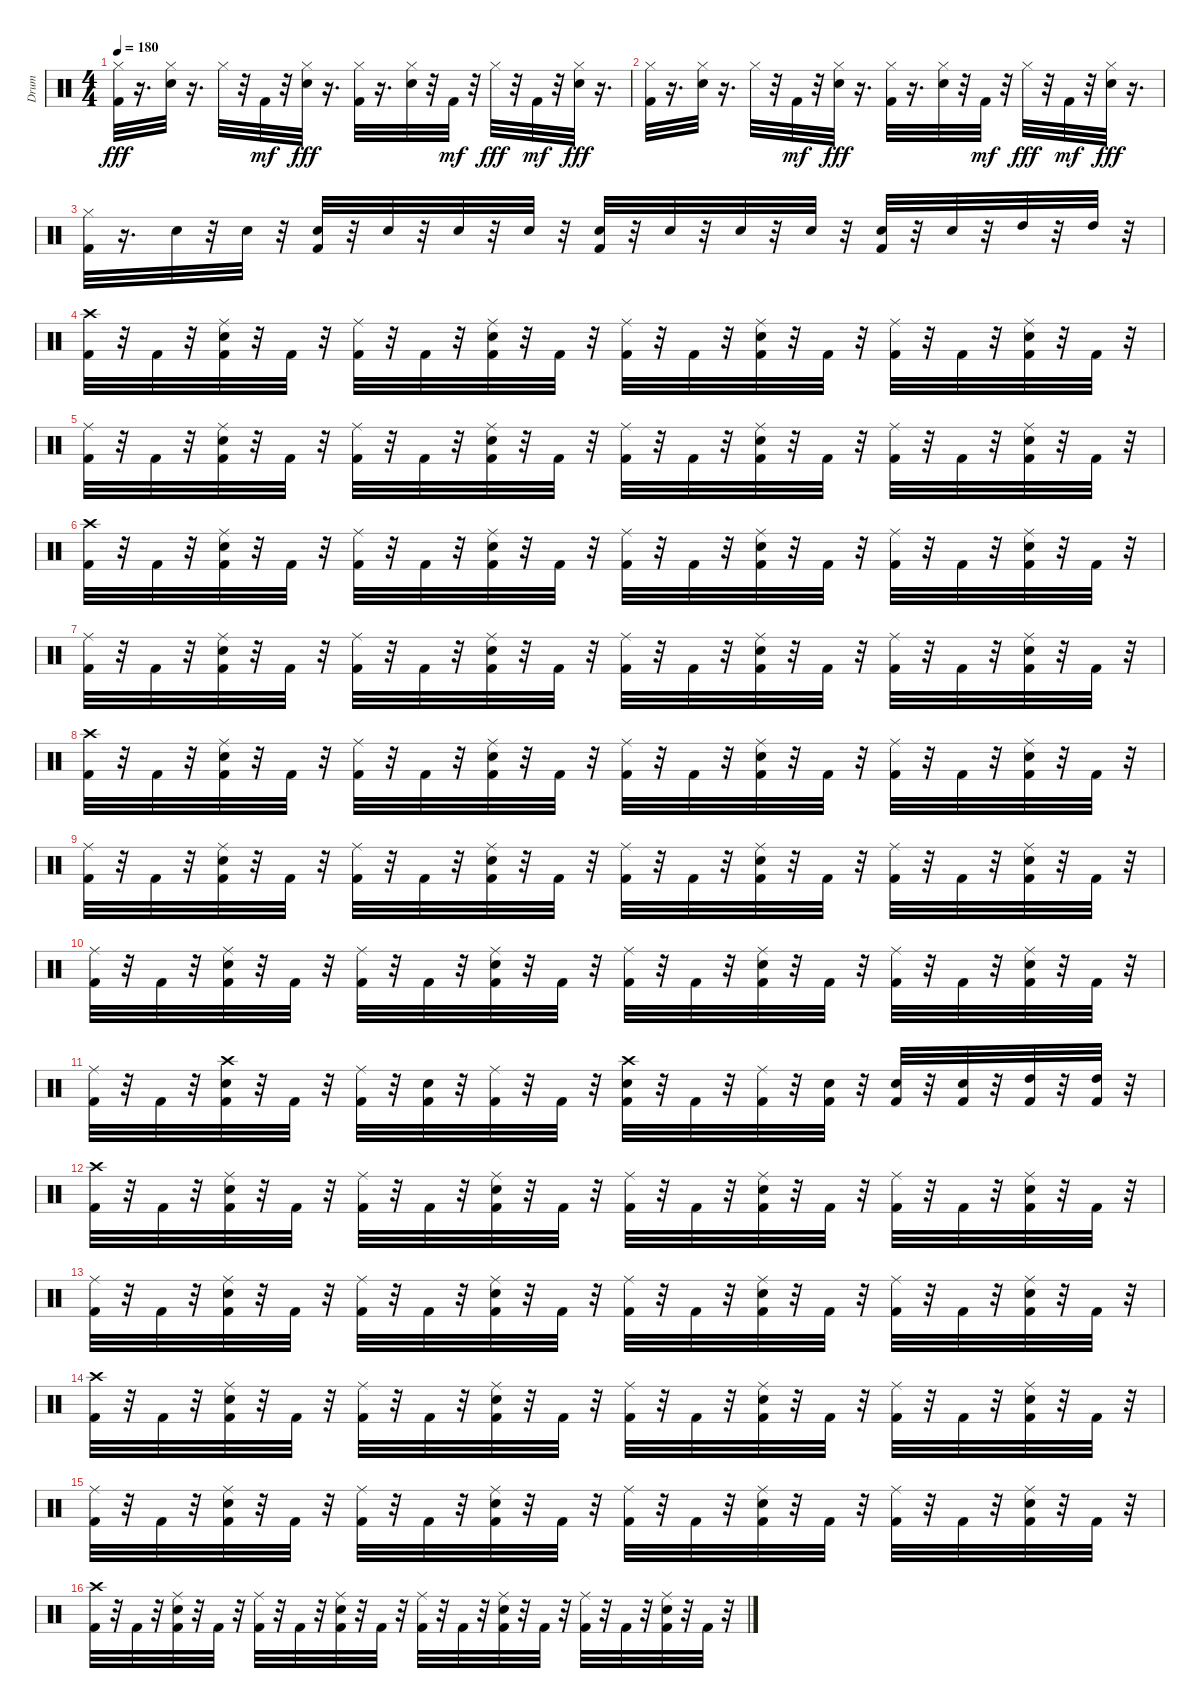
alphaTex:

\track ("Drum" "Drum") {instrument percussion}
\staff {score}
\articulation defaults
\ts (4 4)
\tempo 180
\clef neutral
\ks c
("Kick (hit) 2" "Hi-Hat (closed)").32{dy fff} r.16{d} ("Hi-Hat (closed)" "Snare (hit) 2").32 r.16{d} "Hi-Hat (closed)".32 r.32 "Kick (hit) 2".32{dy mf} r.32 ("Hi-Hat (closed)" "Snare (hit) 2").32{dy fff} r.16{d} ("Kick (hit) 2" "Hi-Hat (closed)").32 r.16{d} ("Hi-Hat (closed)" "Snare (hit) 2").32 r.32 "Kick (hit) 2".32{dy mf} r.32 "Hi-Hat (closed)".32{dy fff} r.32 "Kick (hit) 2".32{dy mf} r.32 ("Hi-Hat (closed)" "Snare (hit) 2").32{dy fff} r.16{d} |
("Kick (hit) 2" "Hi-Hat (closed)").32 r.16{d} ("Hi-Hat (closed)" "Snare (hit) 2").32 r.16{d} "Hi-Hat (closed)".32 r.32 "Kick (hit) 2".32{dy mf} r.32 ("Hi-Hat (closed)" "Snare (hit) 2").32{dy fff} r.16{d} ("Kick (hit) 2" "Hi-Hat (closed)").32 r.16{d} ("Hi-Hat (closed)" "Snare (hit) 2").32 r.32 "Kick (hit) 2".32{dy mf} r.32 "Hi-Hat (closed)".32{dy fff} r.32 "Kick (hit) 2".32{dy mf} r.32 ("Hi-Hat (closed)" "Snare (hit) 2").32{dy fff} r.16{d} |
("Kick (hit) 2" "Hi-Hat (closed)").32 r.16{d} "Snare (hit) 2".32 r.32 "Snare (hit) 2".32 r.32 ("Kick (hit) 2" "Snare (hit) 2").32 r.32 "Snare (hit) 2".32 r.32 "Snare (hit) 2".32 r.32 "Snare (hit) 2".32 r.32 ("Kick (hit) 2" "Snare (hit) 2").32 r.32 "Snare (hit) 2".32 r.32 "Snare (hit) 2".32 r.32 "Snare (hit) 2".32 r.32 ("Kick (hit) 2" "Snare (hit) 2").32 r.32 "Snare (hit) 2".32 r.32 "High Tom (hit)".32 r.32 "High Tom (hit)".32 r.32 |
("Kick (hit) 2" "Crash high (hit)").32 r.32 "Kick (hit) 2".32 r.32 ("Kick (hit) 2" "Snare (hit) 2" "Ride (middle)").32 r.32 "Kick (hit) 2".32 r.32 ("Kick (hit) 2" "Ride (middle)").32 r.32 "Kick (hit) 2".32 r.32 ("Kick (hit) 2" "Snare (hit) 2" "Ride (middle)").32 r.32 "Kick (hit) 2".32 r.32 ("Kick (hit) 2" "Ride (middle)").32 r.32 "Kick (hit) 2".32 r.32 ("Kick (hit) 2" "Snare (hit) 2" "Ride (middle)").32 r.32 "Kick (hit) 2".32 r.32 ("Kick (hit) 2" "Ride (middle)").32 r.32 "Kick (hit) 2".32 r.32 ("Kick (hit) 2" "Snare (hit) 2" "Ride (middle)").32 r.32 "Kick (hit) 2".32 r.32 |
("Ride (middle)" "Kick (hit) 2").32 r.32 "Kick (hit) 2".32 r.32 ("Ride (middle)" "Kick (hit) 2" "Snare (hit) 2").32 r.32 "Kick (hit) 2".32 r.32 ("Ride (middle)" "Kick (hit) 2").32 r.32 "Kick (hit) 2".32 r.32 ("Ride (middle)" "Kick (hit) 2" "Snare (hit) 2").32 r.32 "Kick (hit) 2".32 r.32 ("Ride (middle)" "Kick (hit) 2").32 r.32 "Kick (hit) 2".32 r.32 ("Ride (middle)" "Kick (hit) 2" "Snare (hit) 2").32 r.32 "Kick (hit) 2".32 r.32 ("Ride (middle)" "Kick (hit) 2").32 r.32 "Kick (hit) 2".32 r.32 ("Ride (middle)" "Kick (hit) 2" "Snare (hit) 2").32 r.32 "Kick (hit) 2".32 r.32 |
("Kick (hit) 2" "Crash high (hit)").32 r.32 "Kick (hit) 2".32 r.32 ("Kick (hit) 2" "Snare (hit) 2" "Ride (middle)").32 r.32 "Kick (hit) 2".32 r.32 ("Kick (hit) 2" "Ride (middle)").32 r.32 "Kick (hit) 2".32 r.32 ("Kick (hit) 2" "Snare (hit) 2" "Ride (middle)").32 r.32 "Kick (hit) 2".32 r.32 ("Kick (hit) 2" "Ride (middle)").32 r.32 "Kick (hit) 2".32 r.32 ("Kick (hit) 2" "Snare (hit) 2" "Ride (middle)").32 r.32 "Kick (hit) 2".32 r.32 ("Kick (hit) 2" "Ride (middle)").32 r.32 "Kick (hit) 2".32 r.32 ("Kick (hit) 2" "Snare (hit) 2" "Ride (middle)").32 r.32 "Kick (hit) 2".32 r.32 |
("Ride (middle)" "Kick (hit) 2").32 r.32 "Kick (hit) 2".32 r.32 ("Ride (middle)" "Kick (hit) 2" "Snare (hit) 2").32 r.32 "Kick (hit) 2".32 r.32 ("Ride (middle)" "Kick (hit) 2").32 r.32 "Kick (hit) 2".32 r.32 ("Ride (middle)" "Kick (hit) 2" "Snare (hit) 2").32 r.32 "Kick (hit) 2".32 r.32 ("Ride (middle)" "Kick (hit) 2").32 r.32 "Kick (hit) 2".32 r.32 ("Ride (middle)" "Kick (hit) 2" "Snare (hit) 2").32 r.32 "Kick (hit) 2".32 r.32 ("Ride (middle)" "Kick (hit) 2").32 r.32 "Kick (hit) 2".32 r.32 ("Ride (middle)" "Kick (hit) 2" "Snare (hit) 2").32 r.32 "Kick (hit) 2".32 r.32 |
("Kick (hit) 2" "Crash high (hit)").32 r.32 "Kick (hit) 2".32 r.32 ("Kick (hit) 2" "Snare (hit) 2" "Ride (middle)").32 r.32 "Kick (hit) 2".32 r.32 ("Kick (hit) 2" "Ride (middle)").32 r.32 "Kick (hit) 2".32 r.32 ("Kick (hit) 2" "Snare (hit) 2" "Ride (middle)").32 r.32 "Kick (hit) 2".32 r.32 ("Kick (hit) 2" "Ride (middle)").32 r.32 "Kick (hit) 2".32 r.32 ("Kick (hit) 2" "Snare (hit) 2" "Ride (middle)").32 r.32 "Kick (hit) 2".32 r.32 ("Kick (hit) 2" "Ride (middle)").32 r.32 "Kick (hit) 2".32 r.32 ("Kick (hit) 2" "Snare (hit) 2" "Ride (middle)").32 r.32 "Kick (hit) 2".32 r.32 |
("Ride (middle)" "Kick (hit) 2").32 r.32 "Kick (hit) 2".32 r.32 ("Ride (middle)" "Kick (hit) 2" "Snare (hit) 2").32 r.32 "Kick (hit) 2".32 r.32 ("Ride (middle)" "Kick (hit) 2").32 r.32 "Kick (hit) 2".32 r.32 ("Ride (middle)" "Kick (hit) 2" "Snare (hit) 2").32 r.32 "Kick (hit) 2".32 r.32 ("Ride (middle)" "Kick (hit) 2").32 r.32 "Kick (hit) 2".32 r.32 ("Ride (middle)" "Kick (hit) 2" "Snare (hit) 2").32 r.32 "Kick (hit) 2".32 r.32 ("Ride (middle)" "Kick (hit) 2").32 r.32 "Kick (hit) 2".32 r.32 ("Ride (middle)" "Kick (hit) 2" "Snare (hit) 2").32 r.32 "Kick (hit) 2".32 r.32 |
("Ride (middle)" "Kick (hit) 2").32 r.32 "Kick (hit) 2".32 r.32 ("Ride (middle)" "Kick (hit) 2" "Snare (hit) 2").32 r.32 "Kick (hit) 2".32 r.32 ("Ride (middle)" "Kick (hit) 2").32 r.32 "Kick (hit) 2".32 r.32 ("Ride (middle)" "Kick (hit) 2" "Snare (hit) 2").32 r.32 "Kick (hit) 2".32 r.32 ("Ride (middle)" "Kick (hit) 2").32 r.32 "Kick (hit) 2".32 r.32 ("Ride (middle)" "Kick (hit) 2" "Snare (hit) 2").32 r.32 "Kick (hit) 2".32 r.32 ("Ride (middle)" "Kick (hit) 2").32 r.32 "Kick (hit) 2".32 r.32 ("Ride (middle)" "Kick (hit) 2" "Snare (hit) 2").32 r.32 "Kick (hit) 2".32 r.32 |
("Ride (middle)" "Kick (hit) 2").32 r.32 "Kick (hit) 2".32 r.32 ("Snare (hit) 2" "Crash high (hit)" "Kick (hit) 2").32 r.32 "Kick (hit) 2".32 r.32 ("Ride (middle)" "Kick (hit) 2").32 r.32 ("Snare (hit) 2" "Kick (hit) 2").32 r.32 ("Ride (middle)" "Kick (hit) 2").32 r.32 "Kick (hit) 2".32 r.32 ("Snare (hit) 2" "Crash high (hit)" "Kick (hit) 2").32 r.32 "Kick (hit) 2".32 r.32 ("Ride (middle)" "Kick (hit) 2").32 r.32 ("Snare (hit) 2" "Kick (hit) 2").32 r.32 ("Snare (hit) 2" "Kick (hit) 2").32 r.32 ("Snare (hit) 2" "Kick (hit) 2").32 r.32 ("High Tom (hit)" "Kick (hit) 2").32 r.32 ("High Tom (hit)" "Kick (hit) 2").32 r.32 |
("Kick (hit) 2" "Crash high (hit)").32 r.32 "Kick (hit) 2".32 r.32 ("Kick (hit) 2" "Snare (hit) 2" "Ride (middle)").32 r.32 "Kick (hit) 2".32 r.32 ("Kick (hit) 2" "Ride (middle)").32 r.32 "Kick (hit) 2".32 r.32 ("Kick (hit) 2" "Snare (hit) 2" "Ride (middle)").32 r.32 "Kick (hit) 2".32 r.32 ("Kick (hit) 2" "Ride (middle)").32 r.32 "Kick (hit) 2".32 r.32 ("Kick (hit) 2" "Snare (hit) 2" "Ride (middle)").32 r.32 "Kick (hit) 2".32 r.32 ("Kick (hit) 2" "Ride (middle)").32 r.32 "Kick (hit) 2".32 r.32 ("Kick (hit) 2" "Snare (hit) 2" "Ride (middle)").32 r.32 "Kick (hit) 2".32 r.32 |
("Ride (middle)" "Kick (hit) 2").32 r.32 "Kick (hit) 2".32 r.32 ("Ride (middle)" "Kick (hit) 2" "Snare (hit) 2").32 r.32 "Kick (hit) 2".32 r.32 ("Ride (middle)" "Kick (hit) 2").32 r.32 "Kick (hit) 2".32 r.32 ("Ride (middle)" "Kick (hit) 2" "Snare (hit) 2").32 r.32 "Kick (hit) 2".32 r.32 ("Ride (middle)" "Kick (hit) 2").32 r.32 "Kick (hit) 2".32 r.32 ("Ride (middle)" "Kick (hit) 2" "Snare (hit) 2").32 r.32 "Kick (hit) 2".32 r.32 ("Ride (middle)" "Kick (hit) 2").32 r.32 "Kick (hit) 2".32 r.32 ("Ride (middle)" "Kick (hit) 2" "Snare (hit) 2").32 r.32 "Kick (hit) 2".32 r.32 |
("Kick (hit) 2" "Crash high (hit)").32 r.32 "Kick (hit) 2".32 r.32 ("Kick (hit) 2" "Snare (hit) 2" "Ride (middle)").32 r.32 "Kick (hit) 2".32 r.32 ("Kick (hit) 2" "Ride (middle)").32 r.32 "Kick (hit) 2".32 r.32 ("Kick (hit) 2" "Snare (hit) 2" "Ride (middle)").32 r.32 "Kick (hit) 2".32 r.32 ("Kick (hit) 2" "Ride (middle)").32 r.32 "Kick (hit) 2".32 r.32 ("Kick (hit) 2" "Snare (hit) 2" "Ride (middle)").32 r.32 "Kick (hit) 2".32 r.32 ("Kick (hit) 2" "Ride (middle)").32 r.32 "Kick (hit) 2".32 r.32 ("Kick (hit) 2" "Snare (hit) 2" "Ride (middle)").32 r.32 "Kick (hit) 2".32 r.32 |
("Ride (middle)" "Kick (hit) 2").32 r.32 "Kick (hit) 2".32 r.32 ("Ride (middle)" "Kick (hit) 2" "Snare (hit) 2").32 r.32 "Kick (hit) 2".32 r.32 ("Ride (middle)" "Kick (hit) 2").32 r.32 "Kick (hit) 2".32 r.32 ("Ride (middle)" "Kick (hit) 2" "Snare (hit) 2").32 r.32 "Kick (hit) 2".32 r.32 ("Ride (middle)" "Kick (hit) 2").32 r.32 "Kick (hit) 2".32 r.32 ("Ride (middle)" "Kick (hit) 2" "Snare (hit) 2").32 r.32 "Kick (hit) 2".32 r.32 ("Ride (middle)" "Kick (hit) 2").32 r.32 "Kick (hit) 2".32 r.32 ("Ride (middle)" "Kick (hit) 2" "Snare (hit) 2").32 r.32 "Kick (hit) 2".32 r.32 |
("Kick (hit) 2" "Crash high (hit)").32 r.32 "Kick (hit) 2".32 r.32 ("Kick (hit) 2" "Snare (hit) 2" "Ride (middle)").32 r.32 "Kick (hit) 2".32 r.32 ("Kick (hit) 2" "Ride (middle)").32 r.32 "Kick (hit) 2".32 r.32 ("Kick (hit) 2" "Snare (hit) 2" "Ride (middle)").32 r.32 "Kick (hit) 2".32 r.32 ("Kick (hit) 2" "Ride (middle)").32 r.32 "Kick (hit) 2".32 r.32 ("Kick (hit) 2" "Snare (hit) 2" "Ride (middle)").32 r.32 "Kick (hit) 2".32 r.32 ("Kick (hit) 2" "Ride (middle)").32 r.32 "Kick (hit) 2".32 r.32 ("Kick (hit) 2" "Snare (hit) 2" "Ride (middle)").32 r.32 "Kick (hit) 2".32 r.32
